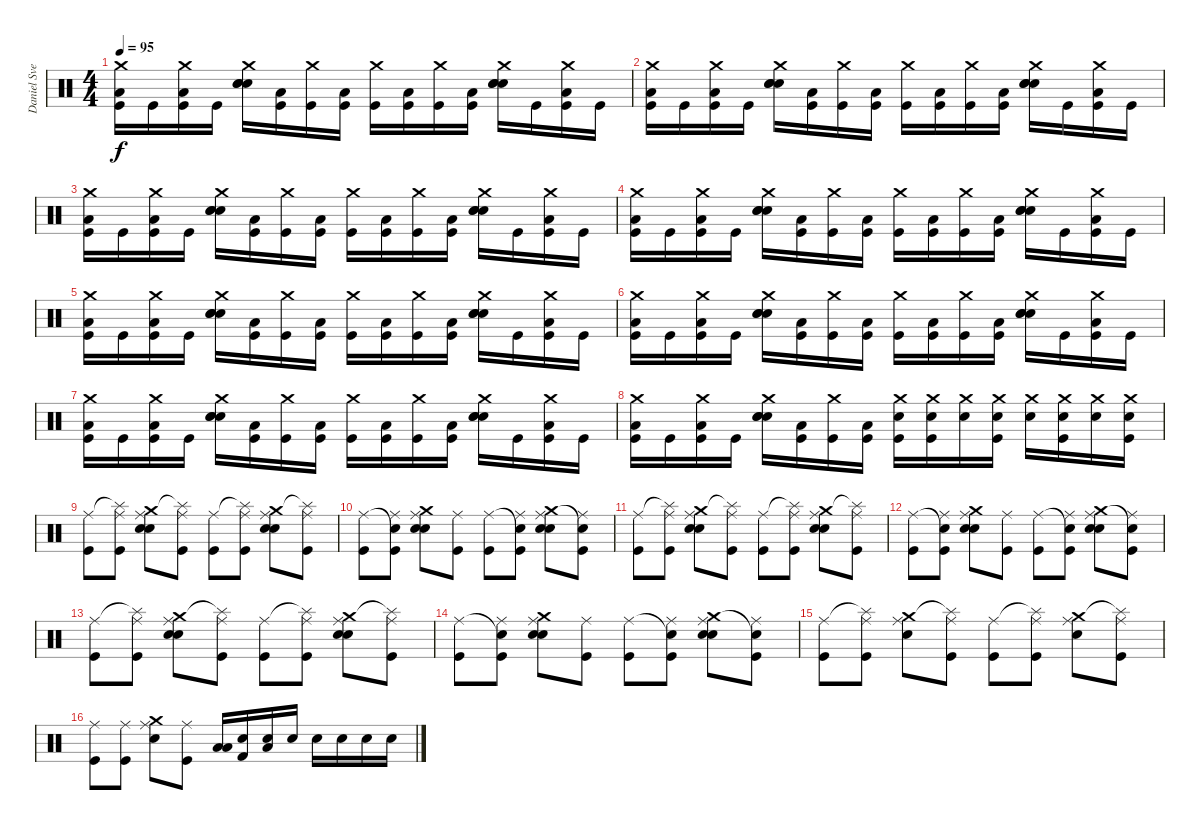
\track ("Daniel Svensson" "Daniel Sve") {instrument percussion}
\staff {score}
\articulation defaults
\ts (4 4)
\tempo 95
\clef neutral
\ks c
("Crash medium (hit)" "Low Floor Tom (hit)" "Kick (hit)").16{dy f} "Kick (hit)".16 ("Crash medium (hit)" "Low Floor Tom (hit)" "Kick (hit)").16 "Kick (hit)".16 ("Crash medium (hit)" "Snare (hit) 2" "Snare (hit) 2" "Snare (hit) 2").16 ("Low Floor Tom (hit)" "Kick (hit)").16 ("Crash medium (hit)" "Kick (hit)").16 ("Low Floor Tom (hit)" "Kick (hit)").16 ("Crash medium (hit)" "Kick (hit)").16 ("Low Floor Tom (hit)" "Kick (hit)").16 ("Crash medium (hit)" "Kick (hit)").16 ("Low Floor Tom (hit)" "Kick (hit)").16 ("Crash medium (hit)" "Snare (hit) 2" "Snare (hit) 2" "Snare (hit) 2").16 "Kick (hit)".16 ("Crash medium (hit)" "Low Floor Tom (hit)" "Kick (hit)").16 "Kick (hit)".16 |
("Crash medium (hit)" "Low Floor Tom (hit)" "Kick (hit)").16 "Kick (hit)".16 ("Crash medium (hit)" "Low Floor Tom (hit)" "Kick (hit)").16 "Kick (hit)".16 ("Crash medium (hit)" "Snare (hit) 2" "Snare (hit) 2" "Snare (hit) 2").16 ("Low Floor Tom (hit)" "Kick (hit)").16 ("Crash medium (hit)" "Kick (hit)").16 ("Low Floor Tom (hit)" "Kick (hit)").16 ("Crash medium (hit)" "Kick (hit)").16 ("Low Floor Tom (hit)" "Kick (hit)").16 ("Crash medium (hit)" "Kick (hit)").16 ("Low Floor Tom (hit)" "Kick (hit)").16 ("Crash medium (hit)" "Snare (hit) 2" "Snare (hit) 2" "Snare (hit) 2").16 "Kick (hit)".16 ("Crash medium (hit)" "Low Floor Tom (hit)" "Kick (hit)").16 "Kick (hit)".16 |
("Crash medium (hit)" "Low Floor Tom (hit)" "Kick (hit)").16 "Kick (hit)".16 ("Crash medium (hit)" "Low Floor Tom (hit)" "Kick (hit)").16 "Kick (hit)".16 ("Crash medium (hit)" "Snare (hit) 2" "Snare (hit) 2" "Snare (hit) 2").16 ("Low Floor Tom (hit)" "Kick (hit)").16 ("Crash medium (hit)" "Kick (hit)").16 ("Low Floor Tom (hit)" "Kick (hit)").16 ("Crash medium (hit)" "Kick (hit)").16 ("Low Floor Tom (hit)" "Kick (hit)").16 ("Crash medium (hit)" "Kick (hit)").16 ("Low Floor Tom (hit)" "Kick (hit)").16 ("Crash medium (hit)" "Snare (hit) 2" "Snare (hit) 2" "Snare (hit) 2").16 "Kick (hit)".16 ("Crash medium (hit)" "Low Floor Tom (hit)" "Kick (hit)").16 "Kick (hit)".16 |
("Crash medium (hit)" "Low Floor Tom (hit)" "Kick (hit)").16 "Kick (hit)".16 ("Crash medium (hit)" "Low Floor Tom (hit)" "Kick (hit)").16 "Kick (hit)".16 ("Crash medium (hit)" "Snare (hit) 2" "Snare (hit) 2" "Snare (hit) 2").16 ("Low Floor Tom (hit)" "Kick (hit)").16 ("Crash medium (hit)" "Kick (hit)").16 ("Low Floor Tom (hit)" "Kick (hit)").16 ("Crash medium (hit)" "Kick (hit)").16 ("Low Floor Tom (hit)" "Kick (hit)").16 ("Crash medium (hit)" "Kick (hit)").16 ("Low Floor Tom (hit)" "Kick (hit)").16 ("Crash medium (hit)" "Snare (hit) 2" "Snare (hit) 2" "Snare (hit) 2").16 "Kick (hit)".16 ("Crash medium (hit)" "Low Floor Tom (hit)" "Kick (hit)").16 "Kick (hit)".16 |
("Crash medium (hit)" "Low Floor Tom (hit)" "Kick (hit)").16 "Kick (hit)".16 ("Crash medium (hit)" "Low Floor Tom (hit)" "Kick (hit)").16 "Kick (hit)".16 ("Crash medium (hit)" "Snare (hit) 2" "Snare (hit) 2" "Snare (hit) 2").16 ("Low Floor Tom (hit)" "Kick (hit)").16 ("Crash medium (hit)" "Kick (hit)").16 ("Low Floor Tom (hit)" "Kick (hit)").16 ("Crash medium (hit)" "Kick (hit)").16 ("Low Floor Tom (hit)" "Kick (hit)").16 ("Crash medium (hit)" "Kick (hit)").16 ("Low Floor Tom (hit)" "Kick (hit)").16 ("Crash medium (hit)" "Snare (hit) 2" "Snare (hit) 2" "Snare (hit) 2").16 "Kick (hit)".16 ("Crash medium (hit)" "Low Floor Tom (hit)" "Kick (hit)").16 "Kick (hit)".16 |
("Crash medium (hit)" "Low Floor Tom (hit)" "Kick (hit)").16 "Kick (hit)".16 ("Crash medium (hit)" "Low Floor Tom (hit)" "Kick (hit)").16 "Kick (hit)".16 ("Crash medium (hit)" "Snare (hit) 2" "Snare (hit) 2" "Snare (hit) 2").16 ("Low Floor Tom (hit)" "Kick (hit)").16 ("Crash medium (hit)" "Kick (hit)").16 ("Low Floor Tom (hit)" "Kick (hit)").16 ("Crash medium (hit)" "Kick (hit)").16 ("Low Floor Tom (hit)" "Kick (hit)").16 ("Crash medium (hit)" "Kick (hit)").16 ("Low Floor Tom (hit)" "Kick (hit)").16 ("Crash medium (hit)" "Snare (hit) 2" "Snare (hit) 2" "Snare (hit) 2").16 "Kick (hit)".16 ("Crash medium (hit)" "Low Floor Tom (hit)" "Kick (hit)").16 "Kick (hit)".16 |
("Crash medium (hit)" "Low Floor Tom (hit)" "Kick (hit)").16 "Kick (hit)".16 ("Crash medium (hit)" "Low Floor Tom (hit)" "Kick (hit)").16 "Kick (hit)".16 ("Crash medium (hit)" "Snare (hit) 2" "Snare (hit) 2" "Snare (hit) 2").16 ("Low Floor Tom (hit)" "Kick (hit)").16 ("Crash medium (hit)" "Kick (hit)").16 ("Low Floor Tom (hit)" "Kick (hit)").16 ("Crash medium (hit)" "Kick (hit)").16 ("Low Floor Tom (hit)" "Kick (hit)").16 ("Crash medium (hit)" "Kick (hit)").16 ("Low Floor Tom (hit)" "Kick (hit)").16 ("Crash medium (hit)" "Snare (hit) 2" "Snare (hit) 2" "Snare (hit) 2").16 "Kick (hit)".16 ("Crash medium (hit)" "Low Floor Tom (hit)" "Kick (hit)").16 "Kick (hit)".16 |
("Crash medium (hit)" "Low Floor Tom (hit)" "Kick (hit)").16 "Kick (hit)".16 ("Crash medium (hit)" "Low Floor Tom (hit)" "Kick (hit)").16 "Kick (hit)".16 ("Crash medium (hit)" "Snare (hit) 2" "Snare (hit) 2" "Snare (hit) 2").16 ("Low Floor Tom (hit)" "Kick (hit)").16 ("Crash medium (hit)" "Kick (hit)").16 ("Low Floor Tom (hit)" "Kick (hit)").16 ("Crash medium (hit)" "Snare (hit) 2" "Kick (hit)").16 ("Crash medium (hit)" "Snare (hit) 2" "Kick (hit)").16 ("Crash medium (hit)" "Snare (hit) 2").16 ("Crash medium (hit)" "Snare (hit) 2" "Kick (hit)").16 ("Crash medium (hit)" "Snare (hit) 2").16 ("Crash medium (hit)" "Snare (hit) 2" "Kick (hit)").16 ("Crash medium (hit)" "Snare (hit) 2").16 ("Crash medium (hit)" "Snare (hit) 2" "Kick (hit)").16 |
("Ride (middle)" "Kick (hit)").8 ("Splash (hit)"{t} "Ride (middle)" "Kick (hit)").8 ("Crash medium (hit)" "Snare (hit) 2" "Ride (middle)" "Snare (hit) 2").8 ("Splash (hit)"{t} "Ride (middle)" "Kick (hit)").8 ("Ride (middle)" "Kick (hit)").8 ("Splash (hit)"{t} "Ride (middle)" "Kick (hit)").8 ("Crash medium (hit)" "Snare (hit) 2" "Ride (middle)" "Snare (hit) 2").8 ("Splash (hit)"{t} "Ride (middle)" "Kick (hit)").8 |
("Ride (middle)" "Kick (hit)").8 ("Snare (hit)"{t} "Ride (middle)" "Kick (hit)").8 ("Crash medium (hit)" "Snare (hit) 2" "Ride (middle)" "Snare (hit) 2").8 ("Ride (middle)" "Kick (hit)").8 ("Ride (middle)" "Kick (hit)").8 ("Snare (hit)"{t} "Ride (middle)" "Kick (hit)").8 ("Crash medium (hit)" "Snare (hit) 2" "Ride (middle)" "Snare (hit) 2").8 ("Snare (hit)"{t} "Ride (middle)" "Kick (hit)").8 |
("Ride (middle)" "Kick (hit)").8 ("Splash (hit)"{t} "Ride (middle)" "Kick (hit)").8 ("Crash medium (hit)" "Snare (hit) 2" "Ride (middle)" "Snare (hit) 2").8 ("Splash (hit)"{t} "Ride (middle)" "Kick (hit)").8 ("Ride (middle)" "Kick (hit)").8 ("Splash (hit)"{t} "Ride (middle)" "Kick (hit)").8 ("Crash medium (hit)" "Snare (hit) 2" "Ride (middle)" "Snare (hit) 2").8 ("Splash (hit)"{t} "Ride (middle)" "Kick (hit)").8 |
("Ride (middle)" "Kick (hit)").8 ("Snare (hit)"{t} "Ride (middle)" "Kick (hit)").8 ("Crash medium (hit)" "Snare (hit) 2" "Ride (middle)" "Snare (hit) 2").8 ("Ride (middle)" "Kick (hit)").8 ("Ride (middle)" "Kick (hit)").8 ("Snare (hit)"{t} "Ride (middle)" "Kick (hit)").8 ("Crash medium (hit)" "Snare (hit) 2" "Ride (middle)" "Snare (hit) 2").8 ("Snare (hit)"{t} "Ride (middle)" "Kick (hit)").8 |
("Ride (middle)" "Kick (hit)").8 ("Splash (hit)"{t} "Ride (middle)" "Kick (hit)").8 ("Crash medium (hit)" "Snare (hit) 2" "Ride (middle)" "Snare (hit) 2").8 ("Splash (hit)"{t} "Ride (middle)" "Kick (hit)").8 ("Ride (middle)" "Kick (hit)").8 ("Splash (hit)"{t} "Ride (middle)" "Kick (hit)").8 ("Crash medium (hit)" "Snare (hit) 2" "Ride (middle)" "Snare (hit) 2").8 ("Splash (hit)"{t} "Ride (middle)" "Kick (hit)").8 |
("Ride (middle)" "Kick (hit)").8 ("Snare (hit)"{t} "Ride (middle)" "Kick (hit)").8 ("Crash medium (hit)" "Snare (hit) 2" "Ride (middle)" "Snare (hit) 2").8 ("Ride (middle)" "Kick (hit)").8 ("Ride (middle)" "Kick (hit)").8 ("Snare (hit)"{t} "Ride (middle)" "Kick (hit)").8 ("Crash medium (hit)" "Snare (hit) 2" "Ride (middle)" "Snare (hit) 2").8 ("Snare (hit)"{t} "Ride (middle)" "Kick (hit)").8 |
("Ride (middle)" "Kick (hit)").8 ("Splash (hit)"{t} "Ride (middle)" "Kick (hit)").8 ("Crash medium (hit)" "Ride (middle)" "Snare (hit) 2").8 ("Splash (hit)"{t} "Ride (middle)" "Kick (hit)").8 ("Ride (middle)" "Kick (hit)").8 ("Splash (hit)"{t} "Ride (middle)" "Kick (hit)").8 ("Crash medium (hit)" "Ride (middle)" "Snare (hit) 2").8 ("Splash (hit)"{t} "Ride (middle)" "Kick (hit)").8 |
("Ride (middle)" "Kick (hit)").8 ("Ride (middle)" "Kick (hit)").8 ("Crash medium (hit)" "Ride (middle)" "Snare (hit) 2").8 ("Ride (middle)" "Kick (hit)").8 ("Low Floor Tom (hit)" "Low Floor Tom (hit)").16 ("Snare (hit) 2" "Kick (hit) 2").16 ("Snare (hit) 2" "Low Floor Tom (hit)").16 "Snare (hit) 2".16 "Snare (hit) 2".16 "Snare (hit) 2".16 "Snare (hit) 2".16 "Snare (hit) 2".16
